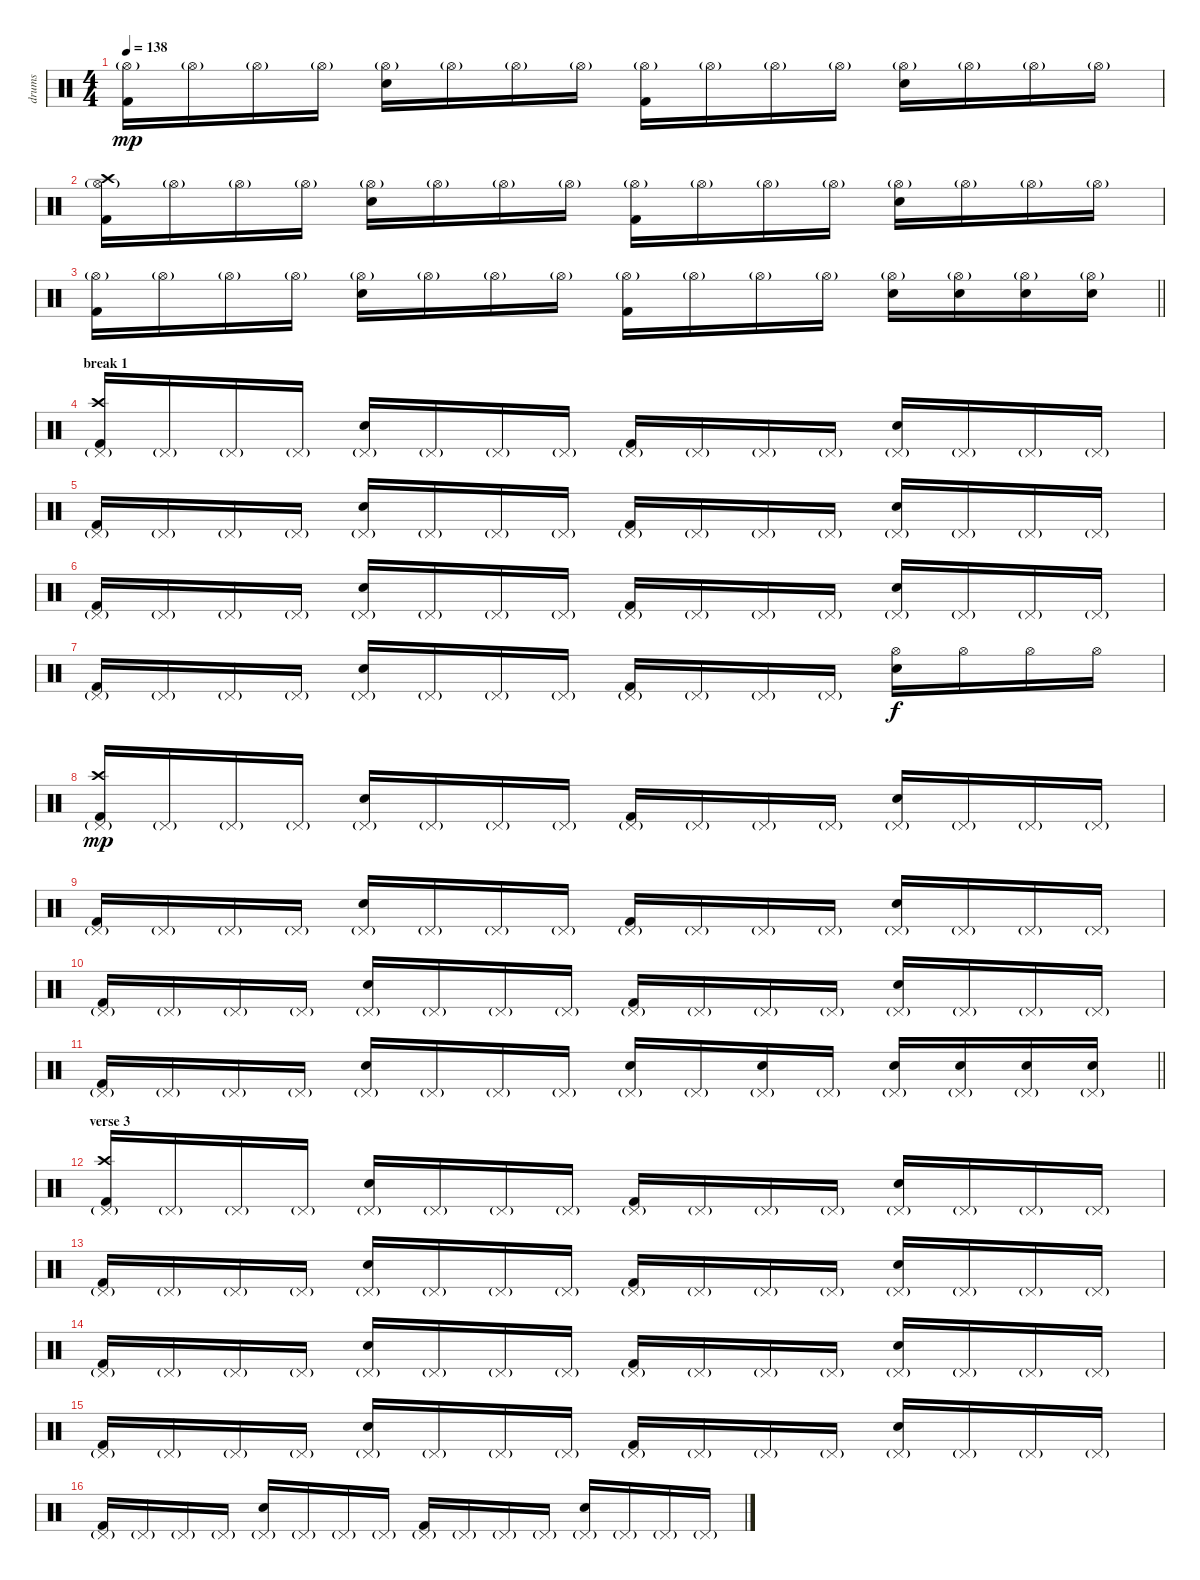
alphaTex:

\track ("drums" "drums") {instrument percussion}
\staff {score}
\articulation defaults
\ts (4 4)
\tempo 138
\clef neutral
\ks c
("Kick (hit) 2" "Hi-Hat (open)"{g}).16{dy mp} "Hi-Hat (open)"{g}.16 "Hi-Hat (open)"{g}.16 "Hi-Hat (open)"{g}.16 ("Electric Snare (hit)" "Hi-Hat (open)"{g}).16 "Hi-Hat (open)"{g}.16 "Hi-Hat (open)"{g}.16 "Hi-Hat (open)"{g}.16 ("Kick (hit) 2" "Hi-Hat (open)"{g}).16 "Hi-Hat (open)"{g}.16 "Hi-Hat (open)"{g}.16 "Hi-Hat (open)"{g}.16 ("Electric Snare (hit)" "Hi-Hat (open)"{g}).16 "Hi-Hat (open)"{g}.16 "Hi-Hat (open)"{g}.16 "Hi-Hat (open)"{g}.16 |
("Kick (hit) 2" "Hi-Hat (open)"{g} "Crash high (hit)").16 "Hi-Hat (open)"{g}.16 "Hi-Hat (open)"{g}.16 "Hi-Hat (open)"{g}.16 ("Electric Snare (hit)" "Hi-Hat (open)"{g}).16 "Hi-Hat (open)"{g}.16 "Hi-Hat (open)"{g}.16 "Hi-Hat (open)"{g}.16 ("Kick (hit) 2" "Hi-Hat (open)"{g}).16 "Hi-Hat (open)"{g}.16 "Hi-Hat (open)"{g}.16 "Hi-Hat (open)"{g}.16 ("Electric Snare (hit)" "Hi-Hat (open)"{g}).16 "Hi-Hat (open)"{g}.16 "Hi-Hat (open)"{g}.16 "Hi-Hat (open)"{g}.16 |
\barLineRight lightlight
("Kick (hit) 2" "Hi-Hat (open)"{g}).16 "Hi-Hat (open)"{g}.16 "Hi-Hat (open)"{g}.16 "Hi-Hat (open)"{g}.16 ("Electric Snare (hit)" "Hi-Hat (open)"{g}).16 "Hi-Hat (open)"{g}.16 "Hi-Hat (open)"{g}.16 "Hi-Hat (open)"{g}.16 ("Kick (hit) 2" "Hi-Hat (open)"{g}).16 "Hi-Hat (open)"{g}.16 "Hi-Hat (open)"{g}.16 "Hi-Hat (open)"{g}.16 ("Electric Snare (hit)" "Hi-Hat (open)"{g}).16 ("Electric Snare (hit)" "Hi-Hat (open)"{g}).16 ("Electric Snare (hit)" "Hi-Hat (open)"{g}).16 ("Electric Snare (hit)" "Hi-Hat (open)"{g}).16 |
\section ("" "break 1 ")
("Kick (hit) 2" "Pedal Hi-Hat (hit)"{g} "Crash high (hit)").16 "Pedal Hi-Hat (hit)"{g}.16 "Pedal Hi-Hat (hit)"{g}.16 "Pedal Hi-Hat (hit)"{g}.16 ("Electric Snare (hit)" "Pedal Hi-Hat (hit)"{g}).16 "Pedal Hi-Hat (hit)"{g}.16 "Pedal Hi-Hat (hit)"{g}.16 "Pedal Hi-Hat (hit)"{g}.16 ("Kick (hit) 2" "Pedal Hi-Hat (hit)"{g}).16 "Pedal Hi-Hat (hit)"{g}.16 "Pedal Hi-Hat (hit)"{g}.16 "Pedal Hi-Hat (hit)"{g}.16 ("Electric Snare (hit)" "Pedal Hi-Hat (hit)"{g}).16 "Pedal Hi-Hat (hit)"{g}.16 "Pedal Hi-Hat (hit)"{g}.16 "Pedal Hi-Hat (hit)"{g}.16 |
("Kick (hit) 2" "Pedal Hi-Hat (hit)"{g}).16 "Pedal Hi-Hat (hit)"{g}.16 "Pedal Hi-Hat (hit)"{g}.16 "Pedal Hi-Hat (hit)"{g}.16 ("Electric Snare (hit)" "Pedal Hi-Hat (hit)"{g}).16 "Pedal Hi-Hat (hit)"{g}.16 "Pedal Hi-Hat (hit)"{g}.16 "Pedal Hi-Hat (hit)"{g}.16 ("Kick (hit) 2" "Pedal Hi-Hat (hit)"{g}).16 "Pedal Hi-Hat (hit)"{g}.16 "Pedal Hi-Hat (hit)"{g}.16 "Pedal Hi-Hat (hit)"{g}.16 ("Electric Snare (hit)" "Pedal Hi-Hat (hit)"{g}).16 "Pedal Hi-Hat (hit)"{g}.16 "Pedal Hi-Hat (hit)"{g}.16 "Pedal Hi-Hat (hit)"{g}.16 |
("Kick (hit) 2" "Pedal Hi-Hat (hit)"{g}).16 "Pedal Hi-Hat (hit)"{g}.16 "Pedal Hi-Hat (hit)"{g}.16 "Pedal Hi-Hat (hit)"{g}.16 ("Electric Snare (hit)" "Pedal Hi-Hat (hit)"{g}).16 "Pedal Hi-Hat (hit)"{g}.16 "Pedal Hi-Hat (hit)"{g}.16 "Pedal Hi-Hat (hit)"{g}.16 ("Kick (hit) 2" "Pedal Hi-Hat (hit)"{g}).16 "Pedal Hi-Hat (hit)"{g}.16 "Pedal Hi-Hat (hit)"{g}.16 "Pedal Hi-Hat (hit)"{g}.16 ("Electric Snare (hit)" "Pedal Hi-Hat (hit)"{g}).16 "Pedal Hi-Hat (hit)"{g}.16 "Pedal Hi-Hat (hit)"{g}.16 "Pedal Hi-Hat (hit)"{g}.16 |
("Kick (hit) 2" "Pedal Hi-Hat (hit)"{g}).16 "Pedal Hi-Hat (hit)"{g}.16 "Pedal Hi-Hat (hit)"{g}.16 "Pedal Hi-Hat (hit)"{g}.16 ("Electric Snare (hit)" "Pedal Hi-Hat (hit)"{g}).16 "Pedal Hi-Hat (hit)"{g}.16 "Pedal Hi-Hat (hit)"{g}.16 "Pedal Hi-Hat (hit)"{g}.16 ("Kick (hit) 2" "Pedal Hi-Hat (hit)"{g}).16 "Pedal Hi-Hat (hit)"{g}.16 "Pedal Hi-Hat (hit)"{g}.16 "Pedal Hi-Hat (hit)"{g}.16 ("Electric Snare (hit)" "Hi-Hat (open)").16{dy f} "Hi-Hat (open)".16 "Hi-Hat (open)".16 "Hi-Hat (open)".16 |
("Kick (hit) 2" "Pedal Hi-Hat (hit)"{g} "Crash high (hit)").16{dy mp} "Pedal Hi-Hat (hit)"{g}.16 "Pedal Hi-Hat (hit)"{g}.16 "Pedal Hi-Hat (hit)"{g}.16 ("Electric Snare (hit)" "Pedal Hi-Hat (hit)"{g}).16 "Pedal Hi-Hat (hit)"{g}.16 "Pedal Hi-Hat (hit)"{g}.16 "Pedal Hi-Hat (hit)"{g}.16 ("Kick (hit) 2" "Pedal Hi-Hat (hit)"{g}).16 "Pedal Hi-Hat (hit)"{g}.16 "Pedal Hi-Hat (hit)"{g}.16 "Pedal Hi-Hat (hit)"{g}.16 ("Electric Snare (hit)" "Pedal Hi-Hat (hit)"{g}).16 "Pedal Hi-Hat (hit)"{g}.16 "Pedal Hi-Hat (hit)"{g}.16 "Pedal Hi-Hat (hit)"{g}.16 |
("Kick (hit) 2" "Pedal Hi-Hat (hit)"{g}).16 "Pedal Hi-Hat (hit)"{g}.16 "Pedal Hi-Hat (hit)"{g}.16 "Pedal Hi-Hat (hit)"{g}.16 ("Electric Snare (hit)" "Pedal Hi-Hat (hit)"{g}).16 "Pedal Hi-Hat (hit)"{g}.16 "Pedal Hi-Hat (hit)"{g}.16 "Pedal Hi-Hat (hit)"{g}.16 ("Kick (hit) 2" "Pedal Hi-Hat (hit)"{g}).16 "Pedal Hi-Hat (hit)"{g}.16 "Pedal Hi-Hat (hit)"{g}.16 "Pedal Hi-Hat (hit)"{g}.16 ("Electric Snare (hit)" "Pedal Hi-Hat (hit)"{g}).16 "Pedal Hi-Hat (hit)"{g}.16 "Pedal Hi-Hat (hit)"{g}.16 "Pedal Hi-Hat (hit)"{g}.16 |
("Kick (hit) 2" "Pedal Hi-Hat (hit)"{g}).16 "Pedal Hi-Hat (hit)"{g}.16 "Pedal Hi-Hat (hit)"{g}.16 "Pedal Hi-Hat (hit)"{g}.16 ("Electric Snare (hit)" "Pedal Hi-Hat (hit)"{g}).16 "Pedal Hi-Hat (hit)"{g}.16 "Pedal Hi-Hat (hit)"{g}.16 "Pedal Hi-Hat (hit)"{g}.16 ("Kick (hit) 2" "Pedal Hi-Hat (hit)"{g}).16 "Pedal Hi-Hat (hit)"{g}.16 "Pedal Hi-Hat (hit)"{g}.16 "Pedal Hi-Hat (hit)"{g}.16 ("Electric Snare (hit)" "Pedal Hi-Hat (hit)"{g}).16 "Pedal Hi-Hat (hit)"{g}.16 "Pedal Hi-Hat (hit)"{g}.16 "Pedal Hi-Hat (hit)"{g}.16 |
\barLineRight lightlight
("Kick (hit) 2" "Pedal Hi-Hat (hit)"{g}).16 "Pedal Hi-Hat (hit)"{g}.16 "Pedal Hi-Hat (hit)"{g}.16 "Pedal Hi-Hat (hit)"{g}.16 ("Electric Snare (hit)" "Pedal Hi-Hat (hit)"{g}).16 "Pedal Hi-Hat (hit)"{g}.16 "Pedal Hi-Hat (hit)"{g}.16 "Pedal Hi-Hat (hit)"{g}.16 ("Electric Snare (hit)" "Pedal Hi-Hat (hit)"{g}).16 "Pedal Hi-Hat (hit)"{g}.16 ("Electric Snare (hit)" "Pedal Hi-Hat (hit)"{g}).16 "Pedal Hi-Hat (hit)"{g}.16 ("Electric Snare (hit)" "Pedal Hi-Hat (hit)"{g}).16 ("Electric Snare (hit)" "Pedal Hi-Hat (hit)"{g}).16 ("Electric Snare (hit)" "Pedal Hi-Hat (hit)"{g}).16 ("Electric Snare (hit)" "Pedal Hi-Hat (hit)"{g}).16 |
\section ("" "verse 3")
("Kick (hit) 2" "Pedal Hi-Hat (hit)"{g} "Crash high (hit)").16 "Pedal Hi-Hat (hit)"{g}.16 "Pedal Hi-Hat (hit)"{g}.16 "Pedal Hi-Hat (hit)"{g}.16 ("Electric Snare (hit)" "Pedal Hi-Hat (hit)"{g}).16 "Pedal Hi-Hat (hit)"{g}.16 "Pedal Hi-Hat (hit)"{g}.16 "Pedal Hi-Hat (hit)"{g}.16 ("Kick (hit) 2" "Pedal Hi-Hat (hit)"{g}).16 "Pedal Hi-Hat (hit)"{g}.16 "Pedal Hi-Hat (hit)"{g}.16 "Pedal Hi-Hat (hit)"{g}.16 ("Electric Snare (hit)" "Pedal Hi-Hat (hit)"{g}).16 "Pedal Hi-Hat (hit)"{g}.16 "Pedal Hi-Hat (hit)"{g}.16 "Pedal Hi-Hat (hit)"{g}.16 |
("Kick (hit) 2" "Pedal Hi-Hat (hit)"{g}).16 "Pedal Hi-Hat (hit)"{g}.16 "Pedal Hi-Hat (hit)"{g}.16 "Pedal Hi-Hat (hit)"{g}.16 ("Electric Snare (hit)" "Pedal Hi-Hat (hit)"{g}).16 "Pedal Hi-Hat (hit)"{g}.16 "Pedal Hi-Hat (hit)"{g}.16 "Pedal Hi-Hat (hit)"{g}.16 ("Kick (hit) 2" "Pedal Hi-Hat (hit)"{g}).16 "Pedal Hi-Hat (hit)"{g}.16 "Pedal Hi-Hat (hit)"{g}.16 "Pedal Hi-Hat (hit)"{g}.16 ("Electric Snare (hit)" "Pedal Hi-Hat (hit)"{g}).16 "Pedal Hi-Hat (hit)"{g}.16 "Pedal Hi-Hat (hit)"{g}.16 "Pedal Hi-Hat (hit)"{g}.16 |
("Kick (hit) 2" "Pedal Hi-Hat (hit)"{g}).16 "Pedal Hi-Hat (hit)"{g}.16 "Pedal Hi-Hat (hit)"{g}.16 "Pedal Hi-Hat (hit)"{g}.16 ("Electric Snare (hit)" "Pedal Hi-Hat (hit)"{g}).16 "Pedal Hi-Hat (hit)"{g}.16 "Pedal Hi-Hat (hit)"{g}.16 "Pedal Hi-Hat (hit)"{g}.16 ("Kick (hit) 2" "Pedal Hi-Hat (hit)"{g}).16 "Pedal Hi-Hat (hit)"{g}.16 "Pedal Hi-Hat (hit)"{g}.16 "Pedal Hi-Hat (hit)"{g}.16 ("Electric Snare (hit)" "Pedal Hi-Hat (hit)"{g}).16 "Pedal Hi-Hat (hit)"{g}.16 "Pedal Hi-Hat (hit)"{g}.16 "Pedal Hi-Hat (hit)"{g}.16 |
("Kick (hit) 2" "Pedal Hi-Hat (hit)"{g}).16 "Pedal Hi-Hat (hit)"{g}.16 "Pedal Hi-Hat (hit)"{g}.16 "Pedal Hi-Hat (hit)"{g}.16 ("Electric Snare (hit)" "Pedal Hi-Hat (hit)"{g}).16 "Pedal Hi-Hat (hit)"{g}.16 "Pedal Hi-Hat (hit)"{g}.16 "Pedal Hi-Hat (hit)"{g}.16 ("Kick (hit) 2" "Pedal Hi-Hat (hit)"{g}).16 "Pedal Hi-Hat (hit)"{g}.16 "Pedal Hi-Hat (hit)"{g}.16 "Pedal Hi-Hat (hit)"{g}.16 ("Electric Snare (hit)" "Pedal Hi-Hat (hit)"{g}).16 "Pedal Hi-Hat (hit)"{g}.16 "Pedal Hi-Hat (hit)"{g}.16 "Pedal Hi-Hat (hit)"{g}.16 |
("Kick (hit) 2" "Pedal Hi-Hat (hit)"{g}).16 "Pedal Hi-Hat (hit)"{g}.16 "Pedal Hi-Hat (hit)"{g}.16 "Pedal Hi-Hat (hit)"{g}.16 ("Electric Snare (hit)" "Pedal Hi-Hat (hit)"{g}).16 "Pedal Hi-Hat (hit)"{g}.16 "Pedal Hi-Hat (hit)"{g}.16 "Pedal Hi-Hat (hit)"{g}.16 ("Kick (hit) 2" "Pedal Hi-Hat (hit)"{g}).16 "Pedal Hi-Hat (hit)"{g}.16 "Pedal Hi-Hat (hit)"{g}.16 "Pedal Hi-Hat (hit)"{g}.16 ("Electric Snare (hit)" "Pedal Hi-Hat (hit)"{g}).16 "Pedal Hi-Hat (hit)"{g}.16 "Pedal Hi-Hat (hit)"{g}.16 "Pedal Hi-Hat (hit)"{g}.16
